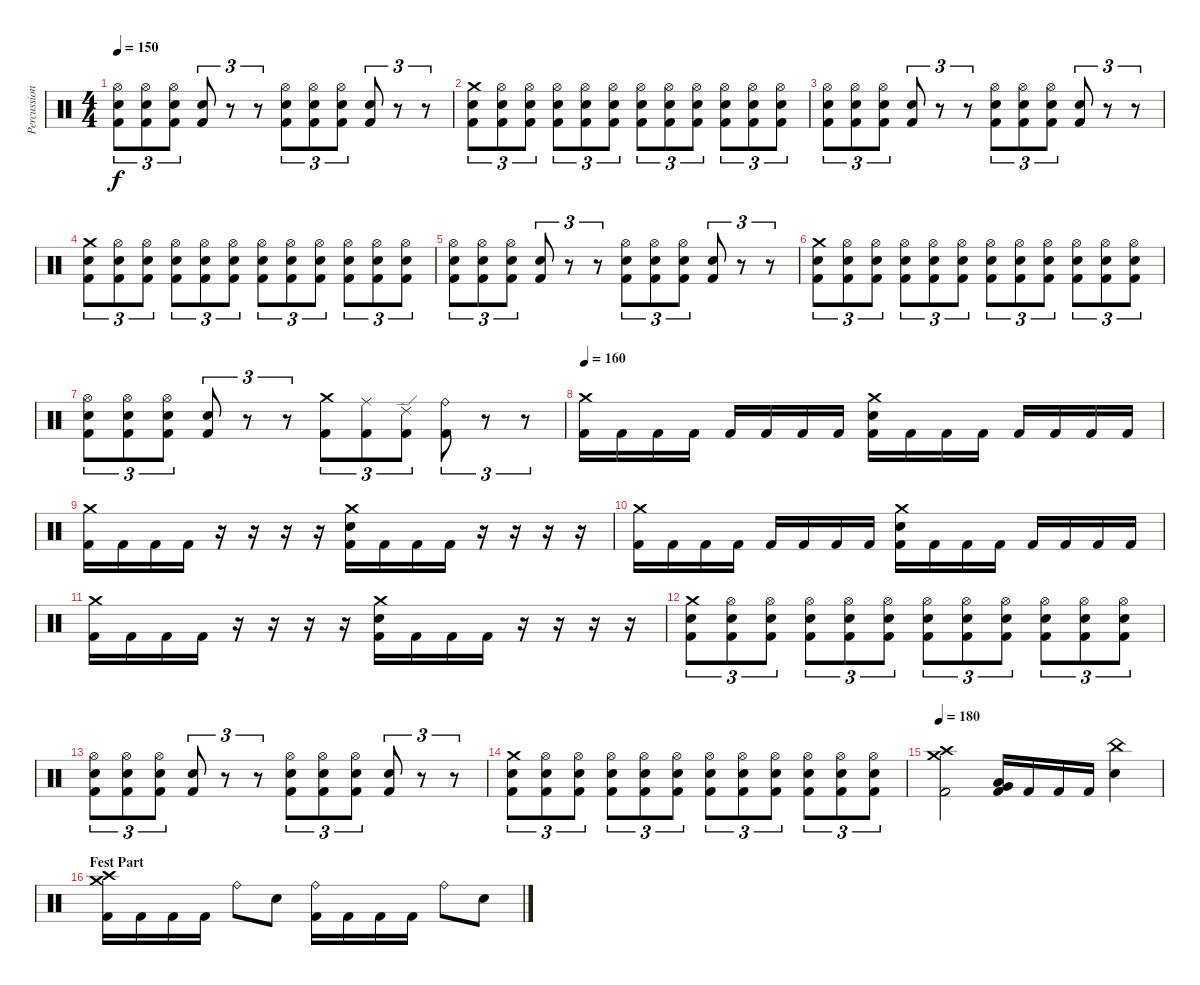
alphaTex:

\track ("Percussion" "Percussion") {instrument percussion}
\staff {score}
\articulation defaults
\ts (4 4)
\tempo 150
\clef neutral
\ks c
("Hi-Hat (open)" "Electric Snare (hit)" "Kick (hit) 2").8{tu (3 2) dy f} ("Hi-Hat (open)" "Electric Snare (hit)" "Kick (hit) 2").8{tu (3 2)} ("Hi-Hat (open)" "Electric Snare (hit)" "Kick (hit) 2").8{tu (3 2)} ("Electric Snare (hit)" "Kick (hit) 2").8{tu (3 2)} r.8{tu (3 2)} r.8{tu (3 2)} ("Hi-Hat (open)" "Electric Snare (hit)" "Kick (hit) 2").8{tu (3 2)} ("Hi-Hat (open)" "Electric Snare (hit)" "Kick (hit) 2").8{tu (3 2)} ("Hi-Hat (open)" "Electric Snare (hit)" "Kick (hit) 2").8{tu (3 2)} ("Electric Snare (hit)" "Kick (hit) 2").8{tu (3 2)} r.8{tu (3 2)} r.8{tu (3 2)} |
("Crash medium (hit)" "Electric Snare (hit)" "Kick (hit) 2").8{tu (3 2)} ("Hi-Hat (open)" "Electric Snare (hit)" "Kick (hit) 2").8{tu (3 2)} ("Hi-Hat (open)" "Electric Snare (hit)" "Kick (hit) 2").8{tu (3 2)} ("Hi-Hat (open)" "Electric Snare (hit)" "Kick (hit) 2").8{tu (3 2)} ("Hi-Hat (open)" "Electric Snare (hit)" "Kick (hit) 2").8{tu (3 2)} ("Hi-Hat (open)" "Electric Snare (hit)" "Kick (hit) 2").8{tu (3 2)} ("Hi-Hat (open)" "Electric Snare (hit)" "Kick (hit) 2").8{tu (3 2)} ("Hi-Hat (open)" "Electric Snare (hit)" "Kick (hit) 2").8{tu (3 2)} ("Hi-Hat (open)" "Electric Snare (hit)" "Kick (hit) 2").8{tu (3 2)} ("Hi-Hat (open)" "Electric Snare (hit)" "Kick (hit) 2").8{tu (3 2)} ("Hi-Hat (open)" "Electric Snare (hit)" "Kick (hit) 2").8{tu (3 2)} ("Hi-Hat (open)" "Electric Snare (hit)" "Kick (hit) 2").8{tu (3 2)} |
("Hi-Hat (open)" "Electric Snare (hit)" "Kick (hit) 2").8{tu (3 2)} ("Hi-Hat (open)" "Electric Snare (hit)" "Kick (hit) 2").8{tu (3 2)} ("Hi-Hat (open)" "Electric Snare (hit)" "Kick (hit) 2").8{tu (3 2)} ("Electric Snare (hit)" "Kick (hit) 2").8{tu (3 2)} r.8{tu (3 2)} r.8{tu (3 2)} ("Hi-Hat (open)" "Electric Snare (hit)" "Kick (hit) 2").8{tu (3 2)} ("Hi-Hat (open)" "Electric Snare (hit)" "Kick (hit) 2").8{tu (3 2)} ("Hi-Hat (open)" "Electric Snare (hit)" "Kick (hit) 2").8{tu (3 2)} ("Electric Snare (hit)" "Kick (hit) 2").8{tu (3 2)} r.8{tu (3 2)} r.8{tu (3 2)} |
("Crash medium (hit)" "Electric Snare (hit)" "Kick (hit) 2").8{tu (3 2)} ("Hi-Hat (open)" "Electric Snare (hit)" "Kick (hit) 2").8{tu (3 2)} ("Hi-Hat (open)" "Electric Snare (hit)" "Kick (hit) 2").8{tu (3 2)} ("Hi-Hat (open)" "Electric Snare (hit)" "Kick (hit) 2").8{tu (3 2)} ("Hi-Hat (open)" "Electric Snare (hit)" "Kick (hit) 2").8{tu (3 2)} ("Hi-Hat (open)" "Electric Snare (hit)" "Kick (hit) 2").8{tu (3 2)} ("Hi-Hat (open)" "Electric Snare (hit)" "Kick (hit) 2").8{tu (3 2)} ("Hi-Hat (open)" "Electric Snare (hit)" "Kick (hit) 2").8{tu (3 2)} ("Hi-Hat (open)" "Electric Snare (hit)" "Kick (hit) 2").8{tu (3 2)} ("Hi-Hat (open)" "Electric Snare (hit)" "Kick (hit) 2").8{tu (3 2)} ("Hi-Hat (open)" "Electric Snare (hit)" "Kick (hit) 2").8{tu (3 2)} ("Hi-Hat (open)" "Electric Snare (hit)" "Kick (hit) 2").8{tu (3 2)} |
("Hi-Hat (open)" "Electric Snare (hit)" "Kick (hit) 2").8{tu (3 2)} ("Hi-Hat (open)" "Electric Snare (hit)" "Kick (hit) 2").8{tu (3 2)} ("Hi-Hat (open)" "Electric Snare (hit)" "Kick (hit) 2").8{tu (3 2)} ("Electric Snare (hit)" "Kick (hit) 2").8{tu (3 2)} r.8{tu (3 2)} r.8{tu (3 2)} ("Hi-Hat (open)" "Electric Snare (hit)" "Kick (hit) 2").8{tu (3 2)} ("Hi-Hat (open)" "Electric Snare (hit)" "Kick (hit) 2").8{tu (3 2)} ("Hi-Hat (open)" "Electric Snare (hit)" "Kick (hit) 2").8{tu (3 2)} ("Electric Snare (hit)" "Kick (hit) 2").8{tu (3 2)} r.8{tu (3 2)} r.8{tu (3 2)} |
("Crash medium (hit)" "Electric Snare (hit)" "Kick (hit) 2").8{tu (3 2)} ("Hi-Hat (open)" "Electric Snare (hit)" "Kick (hit) 2").8{tu (3 2)} ("Hi-Hat (open)" "Electric Snare (hit)" "Kick (hit) 2").8{tu (3 2)} ("Hi-Hat (open)" "Electric Snare (hit)" "Kick (hit) 2").8{tu (3 2)} ("Hi-Hat (open)" "Electric Snare (hit)" "Kick (hit) 2").8{tu (3 2)} ("Hi-Hat (open)" "Electric Snare (hit)" "Kick (hit) 2").8{tu (3 2)} ("Hi-Hat (open)" "Electric Snare (hit)" "Kick (hit) 2").8{tu (3 2)} ("Hi-Hat (open)" "Electric Snare (hit)" "Kick (hit) 2").8{tu (3 2)} ("Hi-Hat (open)" "Electric Snare (hit)" "Kick (hit) 2").8{tu (3 2)} ("Hi-Hat (open)" "Electric Snare (hit)" "Kick (hit) 2").8{tu (3 2)} ("Hi-Hat (open)" "Electric Snare (hit)" "Kick (hit) 2").8{tu (3 2)} ("Hi-Hat (open)" "Electric Snare (hit)" "Kick (hit) 2").8{tu (3 2)} |
("Hi-Hat (open)" "Electric Snare (hit)" "Kick (hit) 2").8{tu (3 2)} ("Hi-Hat (open)" "Electric Snare (hit)" "Kick (hit) 2").8{tu (3 2)} ("Hi-Hat (open)" "Electric Snare (hit)" "Kick (hit) 2").8{tu (3 2)} ("Electric Snare (hit)" "Kick (hit) 2").8{tu (3 2)} r.8{tu (3 2)} r.8{tu (3 2)} ("Crash medium (hit)" "Kick (hit) 2").8{tu (3 2)} ("Ride (middle)" "Kick (hit) 2").8{tu (3 2)} ("Ride (edge) 2" "Kick (hit) 2").8{tu (3 2)} ("Ride (bell)" "Kick (hit) 2").8{tu (3 2)} r.8{tu (3 2)} r.8{tu (3 2)} |
\tempo 160
("Crash medium (hit)" "Kick (hit) 2").16 "Kick (hit) 2".16 "Kick (hit) 2".16 "Kick (hit) 2".16 "Kick (hit) 2".16 "Kick (hit) 2".16 "Kick (hit) 2".16 "Kick (hit) 2".16 ("Crash medium (hit)" "Electric Snare (hit)" "Kick (hit) 2").16 "Kick (hit) 2".16 "Kick (hit) 2".16 "Kick (hit) 2".16 "Kick (hit) 2".16 "Kick (hit) 2".16 "Kick (hit) 2".16 "Kick (hit) 2".16 |
("Crash medium (hit)" "Kick (hit) 2").16 "Kick (hit) 2".16 "Kick (hit) 2".16 "Kick (hit) 2".16 r.16 r.16 r.16 r.16 ("Crash medium (hit)" "Electric Snare (hit)" "Kick (hit) 2").16 "Kick (hit) 2".16 "Kick (hit) 2".16 "Kick (hit) 2".16 r.16 r.16 r.16 r.16 |
("Crash medium (hit)" "Kick (hit) 2").16 "Kick (hit) 2".16 "Kick (hit) 2".16 "Kick (hit) 2".16 "Kick (hit) 2".16 "Kick (hit) 2".16 "Kick (hit) 2".16 "Kick (hit) 2".16 ("Crash medium (hit)" "Electric Snare (hit)" "Kick (hit) 2").16 "Kick (hit) 2".16 "Kick (hit) 2".16 "Kick (hit) 2".16 "Kick (hit) 2".16 "Kick (hit) 2".16 "Kick (hit) 2".16 "Kick (hit) 2".16 |
("Crash medium (hit)" "Kick (hit) 2").16 "Kick (hit) 2".16 "Kick (hit) 2".16 "Kick (hit) 2".16 r.16 r.16 r.16 r.16 ("Crash medium (hit)" "Electric Snare (hit)" "Kick (hit) 2").16 "Kick (hit) 2".16 "Kick (hit) 2".16 "Kick (hit) 2".16 r.16 r.16 r.16 r.16 |
("Crash medium (hit)" "Electric Snare (hit)" "Kick (hit) 2").8{tu (3 2)} ("Hi-Hat (open)" "Electric Snare (hit)" "Kick (hit) 2").8{tu (3 2)} ("Hi-Hat (open)" "Electric Snare (hit)" "Kick (hit) 2").8{tu (3 2)} ("Hi-Hat (open)" "Electric Snare (hit)" "Kick (hit) 2").8{tu (3 2)} ("Hi-Hat (open)" "Electric Snare (hit)" "Kick (hit) 2").8{tu (3 2)} ("Hi-Hat (open)" "Electric Snare (hit)" "Kick (hit) 2").8{tu (3 2)} ("Hi-Hat (open)" "Electric Snare (hit)" "Kick (hit) 2").8{tu (3 2)} ("Hi-Hat (open)" "Electric Snare (hit)" "Kick (hit) 2").8{tu (3 2)} ("Hi-Hat (open)" "Electric Snare (hit)" "Kick (hit) 2").8{tu (3 2)} ("Hi-Hat (open)" "Electric Snare (hit)" "Kick (hit) 2").8{tu (3 2)} ("Hi-Hat (open)" "Electric Snare (hit)" "Kick (hit) 2").8{tu (3 2)} ("Hi-Hat (open)" "Electric Snare (hit)" "Kick (hit) 2").8{tu (3 2)} |
("Hi-Hat (open)" "Electric Snare (hit)" "Kick (hit) 2").8{tu (3 2)} ("Hi-Hat (open)" "Electric Snare (hit)" "Kick (hit) 2").8{tu (3 2)} ("Hi-Hat (open)" "Electric Snare (hit)" "Kick (hit) 2").8{tu (3 2)} ("Electric Snare (hit)" "Kick (hit) 2").8{tu (3 2)} r.8{tu (3 2)} r.8{tu (3 2)} ("Hi-Hat (open)" "Electric Snare (hit)" "Kick (hit) 2").8{tu (3 2)} ("Hi-Hat (open)" "Electric Snare (hit)" "Kick (hit) 2").8{tu (3 2)} ("Hi-Hat (open)" "Electric Snare (hit)" "Kick (hit) 2").8{tu (3 2)} ("Electric Snare (hit)" "Kick (hit) 2").8{tu (3 2)} r.8{tu (3 2)} r.8{tu (3 2)} |
("Crash medium (hit)" "Electric Snare (hit)" "Kick (hit) 2").8{tu (3 2)} ("Hi-Hat (open)" "Electric Snare (hit)" "Kick (hit) 2").8{tu (3 2)} ("Hi-Hat (open)" "Electric Snare (hit)" "Kick (hit) 2").8{tu (3 2)} ("Hi-Hat (open)" "Electric Snare (hit)" "Kick (hit) 2").8{tu (3 2)} ("Hi-Hat (open)" "Electric Snare (hit)" "Kick (hit) 2").8{tu (3 2)} ("Hi-Hat (open)" "Electric Snare (hit)" "Kick (hit) 2").8{tu (3 2)} ("Hi-Hat (open)" "Electric Snare (hit)" "Kick (hit) 2").8{tu (3 2)} ("Hi-Hat (open)" "Electric Snare (hit)" "Kick (hit) 2").8{tu (3 2)} ("Hi-Hat (open)" "Electric Snare (hit)" "Kick (hit) 2").8{tu (3 2)} ("Hi-Hat (open)" "Electric Snare (hit)" "Kick (hit) 2").8{tu (3 2)} ("Hi-Hat (open)" "Electric Snare (hit)" "Kick (hit) 2").8{tu (3 2)} ("Hi-Hat (open)" "Electric Snare (hit)" "Kick (hit) 2").8{tu (3 2)} |
\tempo 180
("Crash medium (hit)" "Crash high (hit)" "Kick (hit) 2").2 ("Very Low Tom (hit)" "Low Floor Tom (hit)" "Kick (hit) 2").16 "Kick (hit) 2".16 "Kick (hit) 2".16 "Kick (hit) 2".16 ("China (hit)" "Electric Snare (hit)").4 |
\section ("" "Fest Part")
("Crash high (hit)" "Crash medium (hit)" "Kick (hit) 2").16 "Kick (hit) 2".16 "Kick (hit) 2".16 "Kick (hit) 2".16 "Ride (bell)".8 "Electric Snare (hit)".8 ("Ride (bell)" "Kick (hit) 2").16 "Kick (hit) 2".16 "Kick (hit) 2".16 "Kick (hit) 2".16 "Ride (bell)".8 "Electric Snare (hit)".8
